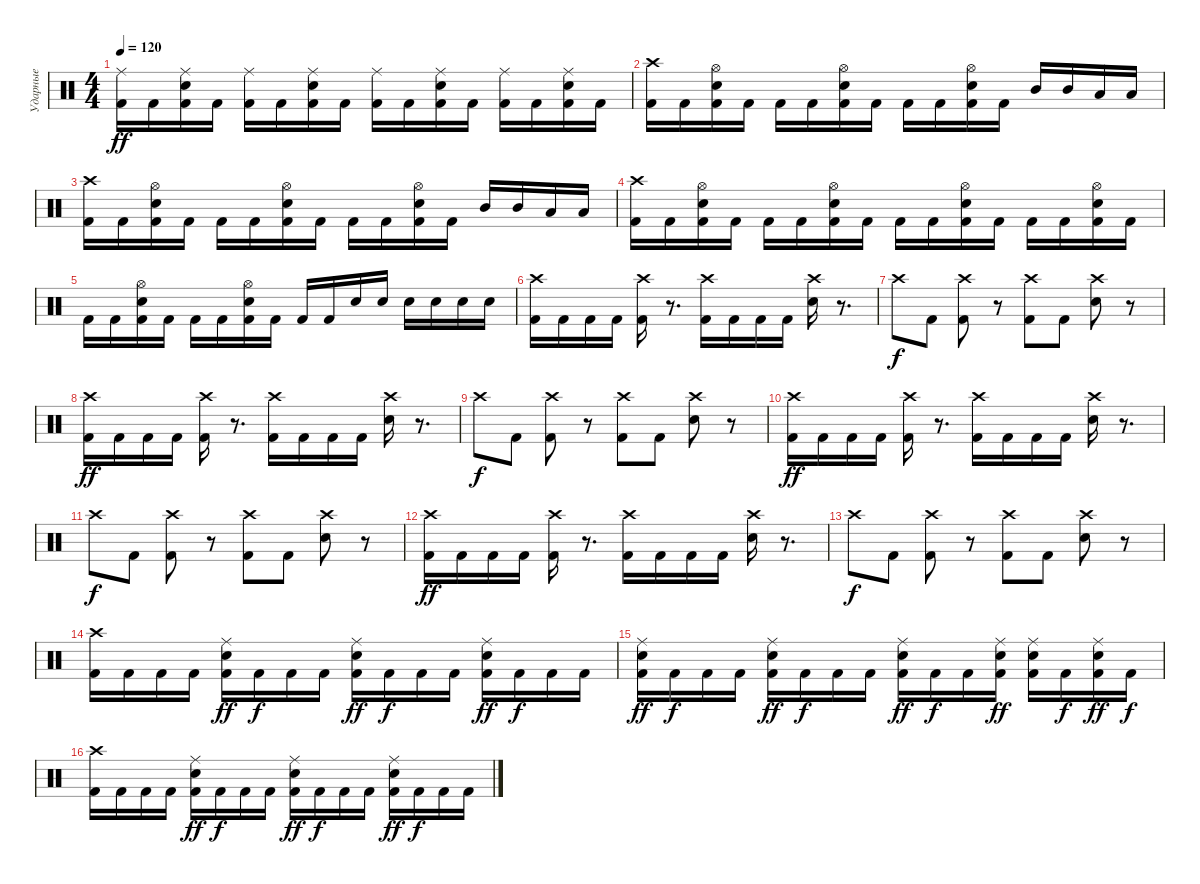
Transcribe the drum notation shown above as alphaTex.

\track ("Ударные" "Ударные") {instrument percussion}
\staff {score}
\articulation defaults
\ts (4 4)
\tempo 120
\clef neutral
\ks c
("Ride (middle)" "Kick (hit) 2").16{dy ff} "Kick (hit) 2".16 ("Ride (middle)" "Kick (hit) 2" "Electric Snare (hit)").16 "Kick (hit) 2".16 ("Ride (middle)" "Kick (hit) 2").16 "Kick (hit) 2".16 ("Ride (middle)" "Kick (hit) 2" "Electric Snare (hit)").16 "Kick (hit) 2".16 ("Ride (middle)" "Kick (hit) 2").16 "Kick (hit) 2".16 ("Ride (middle)" "Kick (hit) 2" "Electric Snare (hit)").16 "Kick (hit) 2".16 ("Ride (middle)" "Kick (hit) 2").16 "Kick (hit) 2".16 ("Ride (middle)" "Kick (hit) 2" "Electric Snare (hit)").16 "Kick (hit) 2".16 |
("Crash high (hit)" "Kick (hit) 2").16 "Kick (hit) 2".16 ("Hi-Hat (open)" "Kick (hit) 2" "Electric Snare (hit)").16 "Kick (hit) 2".16 "Kick (hit) 2".16 "Kick (hit) 2".16 ("Hi-Hat (open)" "Kick (hit) 2" "Electric Snare (hit)").16 "Kick (hit) 2".16 "Kick (hit) 2".16 "Kick (hit) 2".16 ("Hi-Hat (open)" "Kick (hit) 2" "Electric Snare (hit)").16 "Kick (hit) 2".16 "Mid Tom (hit)".16 "Mid Tom (hit)".16 "Low Tom (hit)".16 "Low Tom (hit)".16 |
("Crash high (hit)" "Kick (hit) 2").16 "Kick (hit) 2".16 ("Hi-Hat (open)" "Kick (hit) 2" "Electric Snare (hit)").16 "Kick (hit) 2".16 "Kick (hit) 2".16 "Kick (hit) 2".16 ("Hi-Hat (open)" "Kick (hit) 2" "Electric Snare (hit)").16 "Kick (hit) 2".16 "Kick (hit) 2".16 "Kick (hit) 2".16 ("Hi-Hat (open)" "Kick (hit) 2" "Electric Snare (hit)").16 "Kick (hit) 2".16 "Mid Tom (hit)".16 "Mid Tom (hit)".16 "Low Tom (hit)".16 "Low Tom (hit)".16 |
("Crash high (hit)" "Kick (hit) 2").16 "Kick (hit) 2".16 ("Hi-Hat (open)" "Kick (hit) 2" "Electric Snare (hit)").16 "Kick (hit) 2".16 "Kick (hit) 2".16 "Kick (hit) 2".16 ("Hi-Hat (open)" "Kick (hit) 2" "Electric Snare (hit)").16 "Kick (hit) 2".16 "Kick (hit) 2".16 "Kick (hit) 2".16 ("Hi-Hat (open)" "Kick (hit) 2" "Electric Snare (hit)").16 "Kick (hit) 2".16 "Kick (hit) 2".16 "Kick (hit) 2".16 ("Hi-Hat (open)" "Kick (hit) 2" "Electric Snare (hit)").16 "Kick (hit) 2".16 |
"Kick (hit) 2".16 "Kick (hit) 2".16 ("Hi-Hat (open)" "Kick (hit) 2" "Electric Snare (hit)").16 "Kick (hit) 2".16 "Kick (hit) 2".16 "Kick (hit) 2".16 ("Hi-Hat (open)" "Kick (hit) 2" "Electric Snare (hit)").16 "Kick (hit) 2".16 "Kick (hit) 2".16 "Kick (hit) 2".16 "Electric Snare (hit)".16 "Electric Snare (hit)".16 "Electric Snare (hit)".16 "Electric Snare (hit)".16 "Electric Snare (hit)".16 "Electric Snare (hit)".16 |
("Crash high (hit)" "Kick (hit) 2").16 "Kick (hit) 2".16 "Kick (hit) 2".16 "Kick (hit) 2".16 ("Crash high (hit)" "Kick (hit) 2").16 r.8{d} ("Crash high (hit)" "Kick (hit) 2").16 "Kick (hit) 2".16 "Kick (hit) 2".16 "Kick (hit) 2".16 ("Crash high (hit)" "Electric Snare (hit)").16 r.8{d} |
"Crash high (hit)".8{dy f} "Kick (hit) 2".8 ("Crash high (hit)" "Kick (hit) 2").8 r.8 ("Crash high (hit)" "Kick (hit) 2").8 "Kick (hit) 2".8 ("Crash high (hit)" "Electric Snare (hit)").8 r.8 |
("Crash high (hit)" "Kick (hit) 2").16{dy ff} "Kick (hit) 2".16 "Kick (hit) 2".16 "Kick (hit) 2".16 ("Crash high (hit)" "Kick (hit) 2").16 r.8{d} ("Crash high (hit)" "Kick (hit) 2").16 "Kick (hit) 2".16 "Kick (hit) 2".16 "Kick (hit) 2".16 ("Crash high (hit)" "Electric Snare (hit)").16 r.8{d} |
"Crash high (hit)".8{dy f} "Kick (hit) 2".8 ("Crash high (hit)" "Kick (hit) 2").8 r.8 ("Crash high (hit)" "Kick (hit) 2").8 "Kick (hit) 2".8 ("Crash high (hit)" "Electric Snare (hit)").8 r.8 |
("Crash high (hit)" "Kick (hit) 2").16{dy ff} "Kick (hit) 2".16 "Kick (hit) 2".16 "Kick (hit) 2".16 ("Crash high (hit)" "Kick (hit) 2").16 r.8{d} ("Crash high (hit)" "Kick (hit) 2").16 "Kick (hit) 2".16 "Kick (hit) 2".16 "Kick (hit) 2".16 ("Crash high (hit)" "Electric Snare (hit)").16 r.8{d} |
"Crash high (hit)".8{dy f} "Kick (hit) 2".8 ("Crash high (hit)" "Kick (hit) 2").8 r.8 ("Crash high (hit)" "Kick (hit) 2").8 "Kick (hit) 2".8 ("Crash high (hit)" "Electric Snare (hit)").8 r.8 |
("Crash high (hit)" "Kick (hit) 2").16{dy ff} "Kick (hit) 2".16 "Kick (hit) 2".16 "Kick (hit) 2".16 ("Crash high (hit)" "Kick (hit) 2").16 r.8{d} ("Crash high (hit)" "Kick (hit) 2").16 "Kick (hit) 2".16 "Kick (hit) 2".16 "Kick (hit) 2".16 ("Crash high (hit)" "Electric Snare (hit)").16 r.8{d} |
"Crash high (hit)".8{dy f} "Kick (hit) 2".8 ("Crash high (hit)" "Kick (hit) 2").8 r.8 ("Crash high (hit)" "Kick (hit) 2").8 "Kick (hit) 2".8 ("Crash high (hit)" "Electric Snare (hit)").8 r.8 |
("Crash high (hit)" "Kick (hit) 2").16 "Kick (hit) 2".16 "Kick (hit) 2".16 "Kick (hit) 2".16 ("Ride (middle)" "Kick (hit) 2" "Electric Snare (hit)").16{dy ff} "Kick (hit) 2".16{dy f} "Kick (hit) 2".16 "Kick (hit) 2".16 ("Ride (middle)" "Kick (hit) 2" "Electric Snare (hit)").16{dy ff} "Kick (hit) 2".16{dy f} "Kick (hit) 2".16 "Kick (hit) 2".16 ("Ride (middle)" "Kick (hit) 2" "Electric Snare (hit)").16{dy ff} "Kick (hit) 2".16{dy f} "Kick (hit) 2".16 "Kick (hit) 2".16 |
("Ride (middle)" "Kick (hit) 2" "Electric Snare (hit)").16{dy ff} "Kick (hit) 2".16{dy f} "Kick (hit) 2".16 "Kick (hit) 2".16 ("Ride (middle)" "Kick (hit) 2" "Electric Snare (hit)").16{dy ff} "Kick (hit) 2".16{dy f} "Kick (hit) 2".16 "Kick (hit) 2".16 ("Ride (middle)" "Kick (hit) 2" "Electric Snare (hit)").16{dy ff} "Kick (hit) 2".16{dy f} "Kick (hit) 2".16 ("Ride (middle)" "Kick (hit) 2" "Electric Snare (hit)").16{dy ff} ("Ride (middle)" "Kick (hit) 2" "Electric Snare (hit)").16 "Kick (hit) 2".16{dy f} ("Ride (middle)" "Kick (hit) 2" "Electric Snare (hit)").16{dy ff} "Kick (hit) 2".16{dy f} |
("Crash high (hit)" "Kick (hit) 2").16 "Kick (hit) 2".16 "Kick (hit) 2".16 "Kick (hit) 2".16 ("Ride (middle)" "Kick (hit) 2" "Electric Snare (hit)").16{dy ff} "Kick (hit) 2".16{dy f} "Kick (hit) 2".16 "Kick (hit) 2".16 ("Ride (middle)" "Kick (hit) 2" "Electric Snare (hit)").16{dy ff} "Kick (hit) 2".16{dy f} "Kick (hit) 2".16 "Kick (hit) 2".16 ("Ride (middle)" "Kick (hit) 2" "Electric Snare (hit)").16{dy ff} "Kick (hit) 2".16{dy f} "Kick (hit) 2".16 "Kick (hit) 2".16
